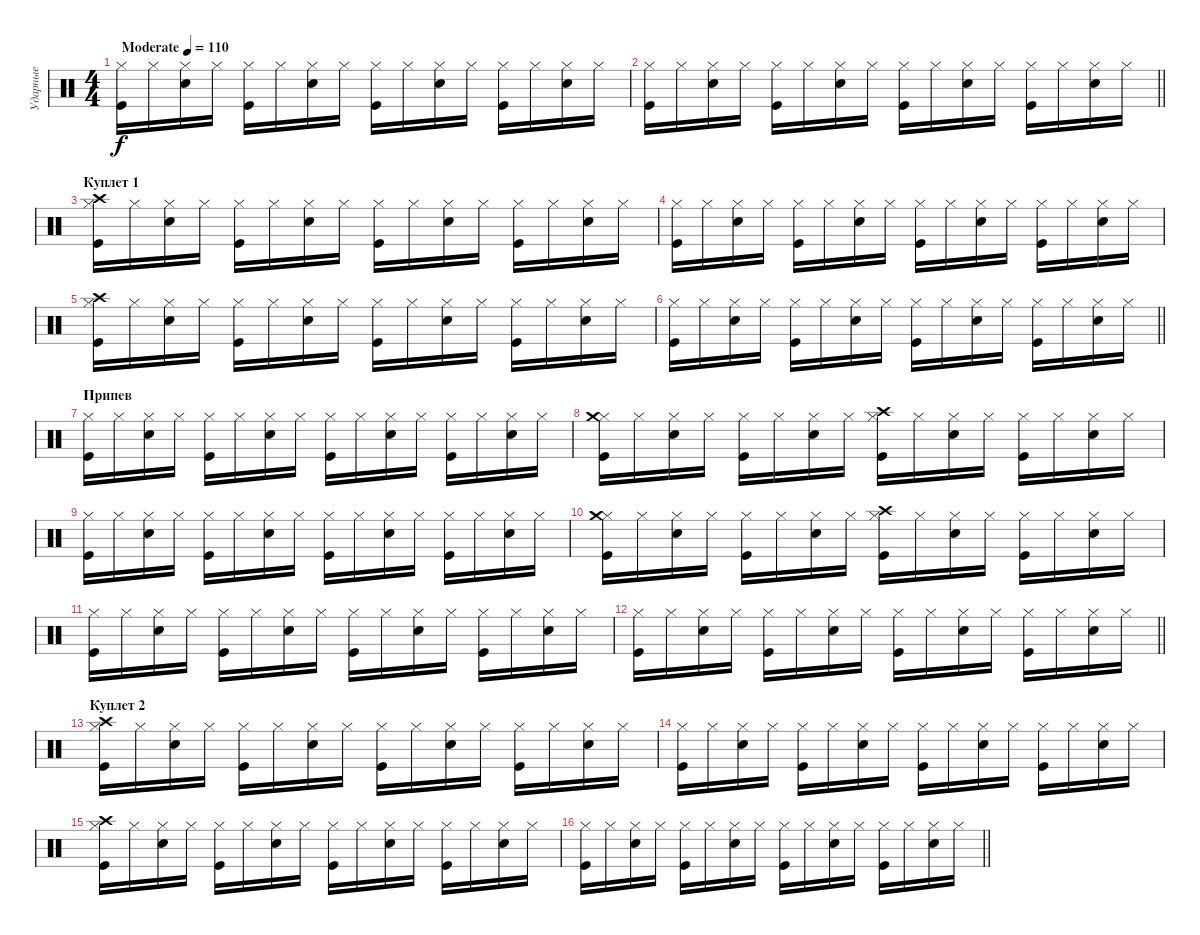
\track ("Ударные" "Ударные") {instrument percussion}
\staff {score}
\articulation defaults
\ts (4 4)
\tempo (110 "Moderate")
\clef neutral
\ks c
("Kick (hit)" "Hi-Hat (closed)").16{dy f} "Hi-Hat (closed)".16 ("Snare (hit) 2" "Hi-Hat (closed)").16 "Hi-Hat (closed)".16 ("Kick (hit)" "Hi-Hat (closed)").16 "Hi-Hat (closed)".16 ("Snare (hit) 2" "Hi-Hat (closed)").16 "Hi-Hat (closed)".16 ("Kick (hit)" "Hi-Hat (closed)").16 "Hi-Hat (closed)".16 ("Snare (hit) 2" "Hi-Hat (closed)").16 "Hi-Hat (closed)".16 ("Kick (hit)" "Hi-Hat (closed)").16 "Hi-Hat (closed)".16 ("Snare (hit) 2" "Hi-Hat (closed)").16 "Hi-Hat (closed)".16 |
\barLineRight lightlight
("Kick (hit)" "Hi-Hat (closed)").16 "Hi-Hat (closed)".16 ("Snare (hit) 2" "Hi-Hat (closed)").16 "Hi-Hat (closed)".16 ("Kick (hit)" "Hi-Hat (closed)").16 "Hi-Hat (closed)".16 ("Snare (hit) 2" "Hi-Hat (closed)").16 "Hi-Hat (closed)".16 ("Kick (hit)" "Hi-Hat (closed)").16 "Hi-Hat (closed)".16 ("Snare (hit) 2" "Hi-Hat (closed)").16 "Hi-Hat (closed)".16 ("Kick (hit)" "Hi-Hat (closed)").16 "Hi-Hat (closed)".16 ("Snare (hit) 2" "Hi-Hat (closed)").16 "Hi-Hat (closed)".16 |
\section ("" "Куплет 1")
("Kick (hit)" "Hi-Hat (closed)" "Crash high (hit)").16 "Hi-Hat (closed)".16 ("Snare (hit) 2" "Hi-Hat (closed)").16 "Hi-Hat (closed)".16 ("Kick (hit)" "Hi-Hat (closed)").16 "Hi-Hat (closed)".16 ("Snare (hit) 2" "Hi-Hat (closed)").16 "Hi-Hat (closed)".16 ("Kick (hit)" "Hi-Hat (closed)").16 "Hi-Hat (closed)".16 ("Snare (hit) 2" "Hi-Hat (closed)").16 "Hi-Hat (closed)".16 ("Kick (hit)" "Hi-Hat (closed)").16 "Hi-Hat (closed)".16 ("Snare (hit) 2" "Hi-Hat (closed)").16 "Hi-Hat (closed)".16 |
("Kick (hit)" "Hi-Hat (closed)").16 "Hi-Hat (closed)".16 ("Snare (hit) 2" "Hi-Hat (closed)").16 "Hi-Hat (closed)".16 ("Kick (hit)" "Hi-Hat (closed)").16 "Hi-Hat (closed)".16 ("Snare (hit) 2" "Hi-Hat (closed)").16 "Hi-Hat (closed)".16 ("Kick (hit)" "Hi-Hat (closed)").16 "Hi-Hat (closed)".16 ("Snare (hit) 2" "Hi-Hat (closed)").16 "Hi-Hat (closed)".16 ("Kick (hit)" "Hi-Hat (closed)").16 "Hi-Hat (closed)".16 ("Snare (hit) 2" "Hi-Hat (closed)").16 "Hi-Hat (closed)".16 |
("Kick (hit)" "Hi-Hat (closed)" "Crash high (hit)").16 "Hi-Hat (closed)".16 ("Snare (hit) 2" "Hi-Hat (closed)").16 "Hi-Hat (closed)".16 ("Kick (hit)" "Hi-Hat (closed)").16 "Hi-Hat (closed)".16 ("Snare (hit) 2" "Hi-Hat (closed)").16 "Hi-Hat (closed)".16 ("Kick (hit)" "Hi-Hat (closed)").16 "Hi-Hat (closed)".16 ("Snare (hit) 2" "Hi-Hat (closed)").16 "Hi-Hat (closed)".16 ("Kick (hit)" "Hi-Hat (closed)").16 "Hi-Hat (closed)".16 ("Snare (hit) 2" "Hi-Hat (closed)").16 "Hi-Hat (closed)".16 |
\barLineRight lightlight
("Kick (hit)" "Hi-Hat (closed)").16 "Hi-Hat (closed)".16 ("Snare (hit) 2" "Hi-Hat (closed)").16 "Hi-Hat (closed)".16 ("Kick (hit)" "Hi-Hat (closed)").16 "Hi-Hat (closed)".16 ("Snare (hit) 2" "Hi-Hat (closed)").16 "Hi-Hat (closed)".16 ("Kick (hit)" "Hi-Hat (closed)").16 "Hi-Hat (closed)".16 ("Snare (hit) 2" "Hi-Hat (closed)").16 "Hi-Hat (closed)".16 ("Kick (hit)" "Hi-Hat (closed)").16 "Hi-Hat (closed)".16 ("Snare (hit) 2" "Hi-Hat (closed)").16 "Hi-Hat (closed)".16 |
\section ("" "Припев")
("Kick (hit)" "Hi-Hat (closed)").16 "Hi-Hat (closed)".16 ("Snare (hit) 2" "Hi-Hat (closed)").16 "Hi-Hat (closed)".16 ("Kick (hit)" "Hi-Hat (closed)").16 "Hi-Hat (closed)".16 ("Snare (hit) 2" "Hi-Hat (closed)").16 "Hi-Hat (closed)".16 ("Kick (hit)" "Hi-Hat (closed)").16 "Hi-Hat (closed)".16 ("Snare (hit) 2" "Hi-Hat (closed)").16 "Hi-Hat (closed)".16 ("Kick (hit)" "Hi-Hat (closed)").16 "Hi-Hat (closed)".16 ("Snare (hit) 2" "Hi-Hat (closed)").16 "Hi-Hat (closed)".16 |
("Kick (hit)" "Hi-Hat (closed)" "Crash medium (hit)").16 "Hi-Hat (closed)".16 ("Snare (hit) 2" "Hi-Hat (closed)").16 "Hi-Hat (closed)".16 ("Kick (hit)" "Hi-Hat (closed)").16 "Hi-Hat (closed)".16 ("Snare (hit) 2" "Hi-Hat (closed)").16 "Hi-Hat (closed)".16 ("Kick (hit)" "Hi-Hat (closed)" "Crash high (hit)").16 "Hi-Hat (closed)".16 ("Snare (hit) 2" "Hi-Hat (closed)").16 "Hi-Hat (closed)".16 ("Kick (hit)" "Hi-Hat (closed)").16 "Hi-Hat (closed)".16 ("Snare (hit) 2" "Hi-Hat (closed)").16 "Hi-Hat (closed)".16 |
("Kick (hit)" "Hi-Hat (closed)").16 "Hi-Hat (closed)".16 ("Snare (hit) 2" "Hi-Hat (closed)").16 "Hi-Hat (closed)".16 ("Kick (hit)" "Hi-Hat (closed)").16 "Hi-Hat (closed)".16 ("Snare (hit) 2" "Hi-Hat (closed)").16 "Hi-Hat (closed)".16 ("Kick (hit)" "Hi-Hat (closed)").16 "Hi-Hat (closed)".16 ("Snare (hit) 2" "Hi-Hat (closed)").16 "Hi-Hat (closed)".16 ("Kick (hit)" "Hi-Hat (closed)").16 "Hi-Hat (closed)".16 ("Snare (hit) 2" "Hi-Hat (closed)").16 "Hi-Hat (closed)".16 |
("Kick (hit)" "Hi-Hat (closed)" "Crash medium (hit)").16 "Hi-Hat (closed)".16 ("Snare (hit) 2" "Hi-Hat (closed)").16 "Hi-Hat (closed)".16 ("Kick (hit)" "Hi-Hat (closed)").16 "Hi-Hat (closed)".16 ("Snare (hit) 2" "Hi-Hat (closed)").16 "Hi-Hat (closed)".16 ("Kick (hit)" "Hi-Hat (closed)" "Crash high (hit)").16 "Hi-Hat (closed)".16 ("Snare (hit) 2" "Hi-Hat (closed)").16 "Hi-Hat (closed)".16 ("Kick (hit)" "Hi-Hat (closed)").16 "Hi-Hat (closed)".16 ("Snare (hit) 2" "Hi-Hat (closed)").16 "Hi-Hat (closed)".16 |
("Kick (hit)" "Hi-Hat (closed)").16 "Hi-Hat (closed)".16 ("Snare (hit) 2" "Hi-Hat (closed)").16 "Hi-Hat (closed)".16 ("Kick (hit)" "Hi-Hat (closed)").16 "Hi-Hat (closed)".16 ("Snare (hit) 2" "Hi-Hat (closed)").16 "Hi-Hat (closed)".16 ("Kick (hit)" "Hi-Hat (closed)").16 "Hi-Hat (closed)".16 ("Snare (hit) 2" "Hi-Hat (closed)").16 "Hi-Hat (closed)".16 ("Kick (hit)" "Hi-Hat (closed)").16 "Hi-Hat (closed)".16 ("Snare (hit) 2" "Hi-Hat (closed)").16 "Hi-Hat (closed)".16 |
\barLineRight lightlight
("Kick (hit)" "Hi-Hat (closed)").16 "Hi-Hat (closed)".16 ("Snare (hit) 2" "Hi-Hat (closed)").16 "Hi-Hat (closed)".16 ("Kick (hit)" "Hi-Hat (closed)").16 "Hi-Hat (closed)".16 ("Snare (hit) 2" "Hi-Hat (closed)").16 "Hi-Hat (closed)".16 ("Kick (hit)" "Hi-Hat (closed)").16 "Hi-Hat (closed)".16 ("Snare (hit) 2" "Hi-Hat (closed)").16 "Hi-Hat (closed)".16 ("Kick (hit)" "Hi-Hat (closed)").16 "Hi-Hat (closed)".16 ("Snare (hit) 2" "Hi-Hat (closed)").16 "Hi-Hat (closed)".16 |
\section ("" "Куплет 2")
("Kick (hit)" "Hi-Hat (closed)" "Crash high (hit)").16 "Hi-Hat (closed)".16 ("Snare (hit) 2" "Hi-Hat (closed)").16 "Hi-Hat (closed)".16 ("Kick (hit)" "Hi-Hat (closed)").16 "Hi-Hat (closed)".16 ("Snare (hit) 2" "Hi-Hat (closed)").16 "Hi-Hat (closed)".16 ("Kick (hit)" "Hi-Hat (closed)").16 "Hi-Hat (closed)".16 ("Snare (hit) 2" "Hi-Hat (closed)").16 "Hi-Hat (closed)".16 ("Kick (hit)" "Hi-Hat (closed)").16 "Hi-Hat (closed)".16 ("Snare (hit) 2" "Hi-Hat (closed)").16 "Hi-Hat (closed)".16 |
("Kick (hit)" "Hi-Hat (closed)").16 "Hi-Hat (closed)".16 ("Snare (hit) 2" "Hi-Hat (closed)").16 "Hi-Hat (closed)".16 ("Kick (hit)" "Hi-Hat (closed)").16 "Hi-Hat (closed)".16 ("Snare (hit) 2" "Hi-Hat (closed)").16 "Hi-Hat (closed)".16 ("Kick (hit)" "Hi-Hat (closed)").16 "Hi-Hat (closed)".16 ("Snare (hit) 2" "Hi-Hat (closed)").16 "Hi-Hat (closed)".16 ("Kick (hit)" "Hi-Hat (closed)").16 "Hi-Hat (closed)".16 ("Snare (hit) 2" "Hi-Hat (closed)").16 "Hi-Hat (closed)".16 |
("Kick (hit)" "Hi-Hat (closed)" "Crash high (hit)").16 "Hi-Hat (closed)".16 ("Snare (hit) 2" "Hi-Hat (closed)").16 "Hi-Hat (closed)".16 ("Kick (hit)" "Hi-Hat (closed)").16 "Hi-Hat (closed)".16 ("Snare (hit) 2" "Hi-Hat (closed)").16 "Hi-Hat (closed)".16 ("Kick (hit)" "Hi-Hat (closed)").16 "Hi-Hat (closed)".16 ("Snare (hit) 2" "Hi-Hat (closed)").16 "Hi-Hat (closed)".16 ("Kick (hit)" "Hi-Hat (closed)").16 "Hi-Hat (closed)".16 ("Snare (hit) 2" "Hi-Hat (closed)").16 "Hi-Hat (closed)".16 |
\barLineRight lightlight
("Kick (hit)" "Hi-Hat (closed)").16 "Hi-Hat (closed)".16 ("Snare (hit) 2" "Hi-Hat (closed)").16 "Hi-Hat (closed)".16 ("Kick (hit)" "Hi-Hat (closed)").16 "Hi-Hat (closed)".16 ("Snare (hit) 2" "Hi-Hat (closed)").16 "Hi-Hat (closed)".16 ("Kick (hit)" "Hi-Hat (closed)").16 "Hi-Hat (closed)".16 ("Snare (hit) 2" "Hi-Hat (closed)").16 "Hi-Hat (closed)".16 ("Kick (hit)" "Hi-Hat (closed)").16 "Hi-Hat (closed)".16 ("Snare (hit) 2" "Hi-Hat (closed)").16 "Hi-Hat (closed)".16
